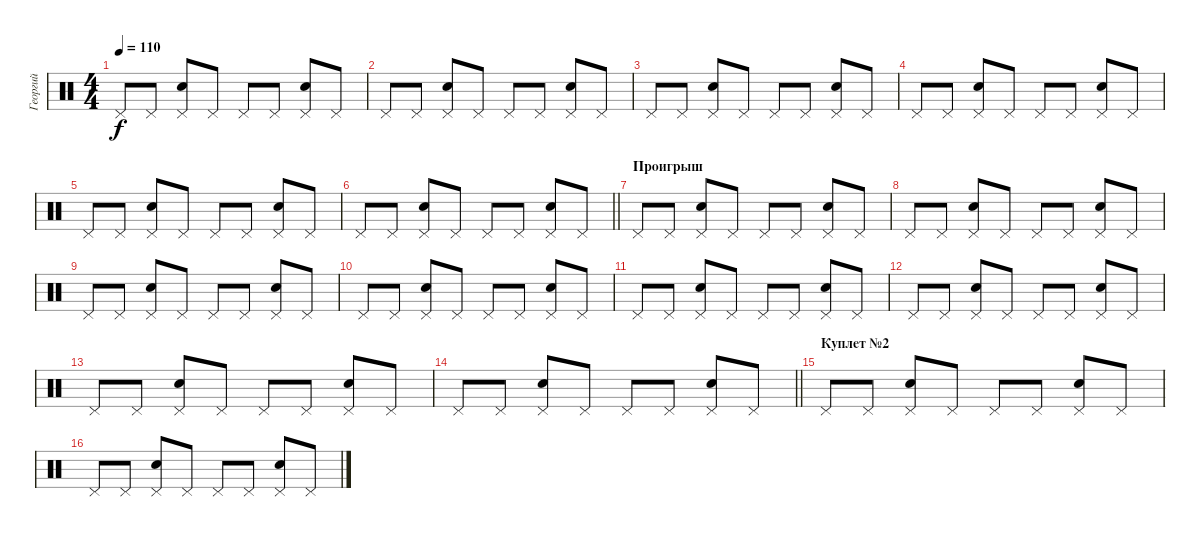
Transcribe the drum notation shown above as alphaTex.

\track ("Георгий" "Георгий") {instrument percussion}
\staff {score}
\articulation defaults
\ts (4 4)
\tempo 110
\clef neutral
\ks c "Pedal Hi-Hat (hit)".8{dy f} "Pedal Hi-Hat (hit)".8
("Pedal Hi-Hat (hit)" "Snare (hit) 2").8 "Pedal Hi-Hat (hit)".8 "Pedal Hi-Hat (hit)".8 "Pedal Hi-Hat (hit)".8 ("Pedal Hi-Hat (hit)" "Snare (hit) 2").8 "Pedal Hi-Hat (hit)".8 |
"Pedal Hi-Hat (hit)".8 "Pedal Hi-Hat (hit)".8 ("Pedal Hi-Hat (hit)" "Snare (hit) 2").8 "Pedal Hi-Hat (hit)".8 "Pedal Hi-Hat (hit)".8 "Pedal Hi-Hat (hit)".8 ("Pedal Hi-Hat (hit)" "Snare (hit) 2").8 "Pedal Hi-Hat (hit)".8 |
"Pedal Hi-Hat (hit)".8 "Pedal Hi-Hat (hit)".8 ("Pedal Hi-Hat (hit)" "Snare (hit) 2").8 "Pedal Hi-Hat (hit)".8 "Pedal Hi-Hat (hit)".8 "Pedal Hi-Hat (hit)".8 ("Pedal Hi-Hat (hit)" "Snare (hit) 2").8 "Pedal Hi-Hat (hit)".8 |
"Pedal Hi-Hat (hit)".8 "Pedal Hi-Hat (hit)".8 ("Pedal Hi-Hat (hit)" "Snare (hit) 2").8 "Pedal Hi-Hat (hit)".8 "Pedal Hi-Hat (hit)".8 "Pedal Hi-Hat (hit)".8 ("Pedal Hi-Hat (hit)" "Snare (hit) 2").8 "Pedal Hi-Hat (hit)".8 |
"Pedal Hi-Hat (hit)".8 "Pedal Hi-Hat (hit)".8 ("Pedal Hi-Hat (hit)" "Snare (hit) 2").8 "Pedal Hi-Hat (hit)".8 "Pedal Hi-Hat (hit)".8 "Pedal Hi-Hat (hit)".8 ("Pedal Hi-Hat (hit)" "Snare (hit) 2").8 "Pedal Hi-Hat (hit)".8 |
\barLineRight lightlight "Pedal Hi-Hat (hit)".8 "Pedal Hi-Hat (hit)".8
("Pedal Hi-Hat (hit)" "Snare (hit) 2").8 "Pedal Hi-Hat (hit)".8 "Pedal Hi-Hat (hit)".8 "Pedal Hi-Hat (hit)".8 ("Pedal Hi-Hat (hit)" "Snare (hit) 2").8 "Pedal Hi-Hat (hit)".8 |
\section ("" "Проигрыш")
"Pedal Hi-Hat (hit)".8 "Pedal Hi-Hat (hit)".8 ("Pedal Hi-Hat (hit)" "Snare (hit) 2").8 "Pedal Hi-Hat (hit)".8 "Pedal Hi-Hat (hit)".8 "Pedal Hi-Hat (hit)".8 ("Pedal Hi-Hat (hit)" "Snare (hit) 2").8 "Pedal Hi-Hat (hit)".8 |
"Pedal Hi-Hat (hit)".8 "Pedal Hi-Hat (hit)".8 ("Pedal Hi-Hat (hit)" "Snare (hit) 2").8 "Pedal Hi-Hat (hit)".8 "Pedal Hi-Hat (hit)".8 "Pedal Hi-Hat (hit)".8 ("Pedal Hi-Hat (hit)" "Snare (hit) 2").8 "Pedal Hi-Hat (hit)".8 |
"Pedal Hi-Hat (hit)".8 "Pedal Hi-Hat (hit)".8 ("Pedal Hi-Hat (hit)" "Snare (hit) 2").8 "Pedal Hi-Hat (hit)".8 "Pedal Hi-Hat (hit)".8 "Pedal Hi-Hat (hit)".8 ("Pedal Hi-Hat (hit)" "Snare (hit) 2").8 "Pedal Hi-Hat (hit)".8 |
"Pedal Hi-Hat (hit)".8 "Pedal Hi-Hat (hit)".8 ("Pedal Hi-Hat (hit)" "Snare (hit) 2").8 "Pedal Hi-Hat (hit)".8 "Pedal Hi-Hat (hit)".8 "Pedal Hi-Hat (hit)".8 ("Pedal Hi-Hat (hit)" "Snare (hit) 2").8 "Pedal Hi-Hat (hit)".8 |
"Pedal Hi-Hat (hit)".8 "Pedal Hi-Hat (hit)".8 ("Pedal Hi-Hat (hit)" "Snare (hit) 2").8 "Pedal Hi-Hat (hit)".8 "Pedal Hi-Hat (hit)".8 "Pedal Hi-Hat (hit)".8 ("Pedal Hi-Hat (hit)" "Snare (hit) 2").8 "Pedal Hi-Hat (hit)".8 |
"Pedal Hi-Hat (hit)".8 "Pedal Hi-Hat (hit)".8 ("Pedal Hi-Hat (hit)" "Snare (hit) 2").8 "Pedal Hi-Hat (hit)".8 "Pedal Hi-Hat (hit)".8 "Pedal Hi-Hat (hit)".8 ("Pedal Hi-Hat (hit)" "Snare (hit) 2").8 "Pedal Hi-Hat (hit)".8 |
"Pedal Hi-Hat (hit)".8 "Pedal Hi-Hat (hit)".8 ("Pedal Hi-Hat (hit)" "Snare (hit) 2").8 "Pedal Hi-Hat (hit)".8 "Pedal Hi-Hat (hit)".8 "Pedal Hi-Hat (hit)".8 ("Pedal Hi-Hat (hit)" "Snare (hit) 2").8 "Pedal Hi-Hat (hit)".8 |
\barLineRight lightlight "Pedal Hi-Hat (hit)".8 "Pedal Hi-Hat (hit)".8
("Pedal Hi-Hat (hit)" "Snare (hit) 2").8 "Pedal Hi-Hat (hit)".8 "Pedal Hi-Hat (hit)".8 "Pedal Hi-Hat (hit)".8 ("Pedal Hi-Hat (hit)" "Snare (hit) 2").8 "Pedal Hi-Hat (hit)".8 |
\section ("" "Куплет №2")
"Pedal Hi-Hat (hit)".8{volume 14} "Pedal Hi-Hat (hit)".8 ("Pedal Hi-Hat (hit)" "Snare (hit) 2").8 "Pedal Hi-Hat (hit)".8 "Pedal Hi-Hat (hit)".8 "Pedal Hi-Hat (hit)".8 ("Pedal Hi-Hat (hit)" "Snare (hit) 2").8 "Pedal Hi-Hat (hit)".8 |
"Pedal Hi-Hat (hit)".8 "Pedal Hi-Hat (hit)".8 ("Pedal Hi-Hat (hit)" "Snare (hit) 2").8 "Pedal Hi-Hat (hit)".8 "Pedal Hi-Hat (hit)".8 "Pedal Hi-Hat (hit)".8 ("Pedal Hi-Hat (hit)" "Snare (hit) 2").8 "Pedal Hi-Hat (hit)".8
